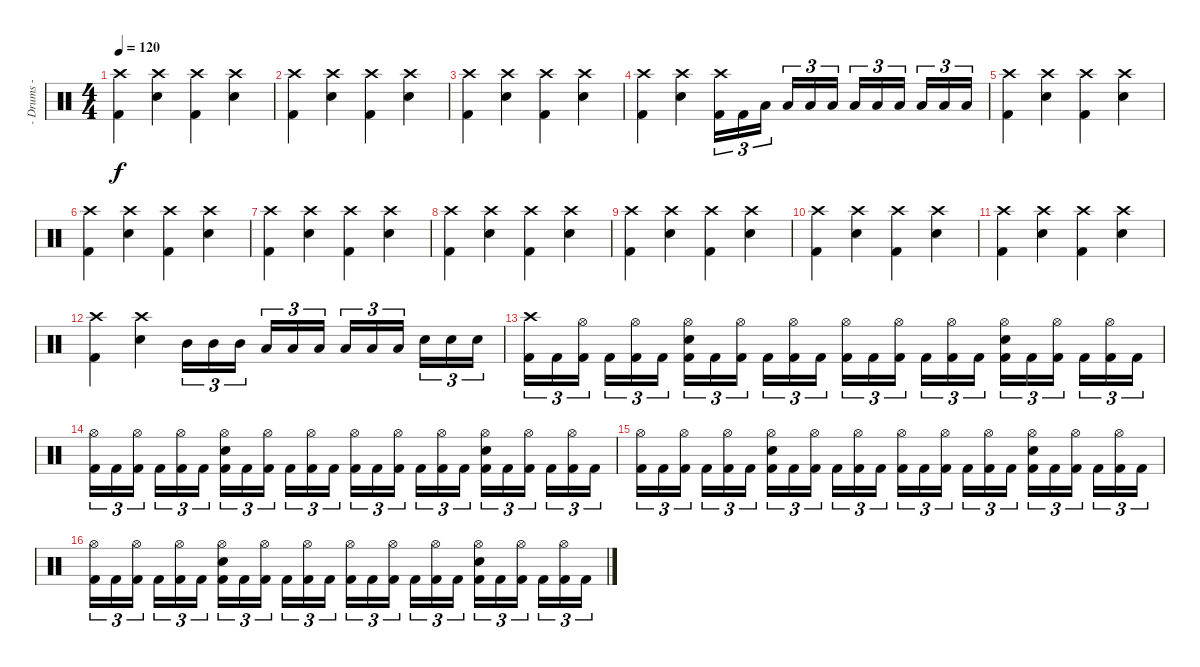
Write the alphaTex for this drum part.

\track ("- Drums -" "- Drums -") {instrument percussion}
\staff {score}
\articulation defaults
\ts (4 4)
\tempo 120
\clef neutral
\ks c
("Crash high (hit)" "Kick (hit) 2").4{dy f} ("Crash high (hit)" "Electric Snare (hit)").4 ("Crash high (hit)" "Kick (hit) 2").4 ("Crash high (hit)" "Electric Snare (hit)").4 |
("Crash high (hit)" "Kick (hit) 2").4 ("Crash high (hit)" "Electric Snare (hit)").4 ("Crash high (hit)" "Kick (hit) 2").4 ("Crash high (hit)" "Electric Snare (hit)").4 |
("Crash high (hit)" "Kick (hit) 2").4 ("Crash high (hit)" "Electric Snare (hit)").4 ("Crash high (hit)" "Kick (hit) 2").4 ("Crash high (hit)" "Electric Snare (hit)").4 |
("Crash high (hit)" "Kick (hit) 2").4 ("Crash high (hit)" "Electric Snare (hit)").4 ("Crash high (hit)" "Kick (hit) 2").16{tu (3 2)} "Kick (hit) 2".16{tu (3 2)} "Low Tom (hit)".16{tu (3 2)} "Low Tom (hit)".16{tu (3 2)} "Low Tom (hit)".16{tu (3 2)} "Low Tom (hit)".16{tu (3 2)} "Low Floor Tom (hit)".16{tu (3 2)} "Low Floor Tom (hit)".16{tu (3 2)} "Low Floor Tom (hit)".16{tu (3 2)} "Low Floor Tom (hit)".16{tu (3 2)} "Low Floor Tom (hit)".16{tu (3 2)} "Low Floor Tom (hit)".16{tu (3 2)} |
("Crash high (hit)" "Kick (hit) 2").4 ("Crash high (hit)" "Electric Snare (hit)").4 ("Crash high (hit)" "Kick (hit) 2").4 ("Crash high (hit)" "Electric Snare (hit)").4 |
("Crash high (hit)" "Kick (hit) 2").4 ("Crash high (hit)" "Electric Snare (hit)").4 ("Crash high (hit)" "Kick (hit) 2").4 ("Crash high (hit)" "Electric Snare (hit)").4 |
("Crash high (hit)" "Kick (hit) 2").4 ("Crash high (hit)" "Electric Snare (hit)").4 ("Crash high (hit)" "Kick (hit) 2").4 ("Crash high (hit)" "Electric Snare (hit)").4 |
("Crash high (hit)" "Kick (hit) 2").4 ("Crash high (hit)" "Electric Snare (hit)").4 ("Crash high (hit)" "Kick (hit) 2").4 ("Crash high (hit)" "Electric Snare (hit)").4 |
("Crash high (hit)" "Kick (hit) 2").4 ("Crash high (hit)" "Electric Snare (hit)").4 ("Crash high (hit)" "Kick (hit) 2").4 ("Crash high (hit)" "Electric Snare (hit)").4 |
("Crash high (hit)" "Kick (hit) 2").4 ("Crash high (hit)" "Electric Snare (hit)").4 ("Crash high (hit)" "Kick (hit) 2").4 ("Crash high (hit)" "Electric Snare (hit)").4 |
("Crash high (hit)" "Kick (hit) 2").4 ("Crash high (hit)" "Electric Snare (hit)").4 ("Crash high (hit)" "Kick (hit) 2").4 ("Crash high (hit)" "Electric Snare (hit)").4 |
("Crash high (hit)" "Kick (hit) 2").4 ("Crash high (hit)" "Electric Snare (hit)").4 "Mid Tom (hit)".16{tu (3 2)} "Mid Tom (hit)".16{tu (3 2)} "Mid Tom (hit)".16{tu (3 2)} "Low Tom (hit)".16{tu (3 2)} "Low Tom (hit)".16{tu (3 2)} "Low Tom (hit)".16{tu (3 2)} "Low Floor Tom (hit)".16{tu (3 2)} "Low Floor Tom (hit)".16{tu (3 2)} "Low Floor Tom (hit)".16{tu (3 2)} "Electric Snare (hit)".16{tu (3 2)} "Electric Snare (hit)".16{tu (3 2)} "Electric Snare (hit)".16{tu (3 2)} |
("Crash high (hit)" "Kick (hit) 2").16{tu (3 2)} "Kick (hit) 2".16{tu (3 2)} ("Hi-Hat (open)" "Kick (hit) 2").16{tu (3 2)} "Kick (hit) 2".16{tu (3 2)} ("Hi-Hat (open)" "Kick (hit) 2").16{tu (3 2)} "Kick (hit) 2".16{tu (3 2)} ("Hi-Hat (open)" "Electric Snare (hit)" "Kick (hit) 2").16{tu (3 2)} "Kick (hit) 2".16{tu (3 2)} ("Hi-Hat (open)" "Kick (hit) 2").16{tu (3 2)} "Kick (hit) 2".16{tu (3 2)} ("Hi-Hat (open)" "Kick (hit) 2").16{tu (3 2)} "Kick (hit) 2".16{tu (3 2)} ("Hi-Hat (open)" "Kick (hit) 2").16{tu (3 2)} "Kick (hit) 2".16{tu (3 2)} ("Hi-Hat (open)" "Kick (hit) 2").16{tu (3 2)} "Kick (hit) 2".16{tu (3 2)} ("Hi-Hat (open)" "Kick (hit) 2").16{tu (3 2)} "Kick (hit) 2".16{tu (3 2)} ("Hi-Hat (open)" "Electric Snare (hit)" "Kick (hit) 2").16{tu (3 2)} "Kick (hit) 2".16{tu (3 2)} ("Hi-Hat (open)" "Kick (hit) 2").16{tu (3 2)} "Kick (hit) 2".16{tu (3 2)} ("Hi-Hat (open)" "Kick (hit) 2").16{tu (3 2)} "Kick (hit) 2".16{tu (3 2)} |
("Hi-Hat (open)" "Kick (hit) 2").16{tu (3 2)} "Kick (hit) 2".16{tu (3 2)} ("Hi-Hat (open)" "Kick (hit) 2").16{tu (3 2)} "Kick (hit) 2".16{tu (3 2)} ("Hi-Hat (open)" "Kick (hit) 2").16{tu (3 2)} "Kick (hit) 2".16{tu (3 2)} ("Hi-Hat (open)" "Electric Snare (hit)" "Kick (hit) 2").16{tu (3 2)} "Kick (hit) 2".16{tu (3 2)} ("Hi-Hat (open)" "Kick (hit) 2").16{tu (3 2)} "Kick (hit) 2".16{tu (3 2)} ("Hi-Hat (open)" "Kick (hit) 2").16{tu (3 2)} "Kick (hit) 2".16{tu (3 2)} ("Hi-Hat (open)" "Kick (hit) 2").16{tu (3 2)} "Kick (hit) 2".16{tu (3 2)} ("Hi-Hat (open)" "Kick (hit) 2").16{tu (3 2)} "Kick (hit) 2".16{tu (3 2)} ("Hi-Hat (open)" "Kick (hit) 2").16{tu (3 2)} "Kick (hit) 2".16{tu (3 2)} ("Hi-Hat (open)" "Electric Snare (hit)" "Kick (hit) 2").16{tu (3 2)} "Kick (hit) 2".16{tu (3 2)} ("Hi-Hat (open)" "Kick (hit) 2").16{tu (3 2)} "Kick (hit) 2".16{tu (3 2)} ("Hi-Hat (open)" "Kick (hit) 2").16{tu (3 2)} "Kick (hit) 2".16{tu (3 2)} |
("Hi-Hat (open)" "Kick (hit) 2").16{tu (3 2)} "Kick (hit) 2".16{tu (3 2)} ("Hi-Hat (open)" "Kick (hit) 2").16{tu (3 2)} "Kick (hit) 2".16{tu (3 2)} ("Hi-Hat (open)" "Kick (hit) 2").16{tu (3 2)} "Kick (hit) 2".16{tu (3 2)} ("Hi-Hat (open)" "Electric Snare (hit)" "Kick (hit) 2").16{tu (3 2)} "Kick (hit) 2".16{tu (3 2)} ("Hi-Hat (open)" "Kick (hit) 2").16{tu (3 2)} "Kick (hit) 2".16{tu (3 2)} ("Hi-Hat (open)" "Kick (hit) 2").16{tu (3 2)} "Kick (hit) 2".16{tu (3 2)} ("Hi-Hat (open)" "Kick (hit) 2").16{tu (3 2)} "Kick (hit) 2".16{tu (3 2)} ("Hi-Hat (open)" "Kick (hit) 2").16{tu (3 2)} "Kick (hit) 2".16{tu (3 2)} ("Hi-Hat (open)" "Kick (hit) 2").16{tu (3 2)} "Kick (hit) 2".16{tu (3 2)} ("Hi-Hat (open)" "Electric Snare (hit)" "Kick (hit) 2").16{tu (3 2)} "Kick (hit) 2".16{tu (3 2)} ("Hi-Hat (open)" "Kick (hit) 2").16{tu (3 2)} "Kick (hit) 2".16{tu (3 2)} ("Hi-Hat (open)" "Kick (hit) 2").16{tu (3 2)} "Kick (hit) 2".16{tu (3 2)} |
("Hi-Hat (open)" "Kick (hit) 2").16{tu (3 2)} "Kick (hit) 2".16{tu (3 2)} ("Hi-Hat (open)" "Kick (hit) 2").16{tu (3 2)} "Kick (hit) 2".16{tu (3 2)} ("Hi-Hat (open)" "Kick (hit) 2").16{tu (3 2)} "Kick (hit) 2".16{tu (3 2)} ("Hi-Hat (open)" "Electric Snare (hit)" "Kick (hit) 2").16{tu (3 2)} "Kick (hit) 2".16{tu (3 2)} ("Hi-Hat (open)" "Kick (hit) 2").16{tu (3 2)} "Kick (hit) 2".16{tu (3 2)} ("Hi-Hat (open)" "Kick (hit) 2").16{tu (3 2)} "Kick (hit) 2".16{tu (3 2)} ("Hi-Hat (open)" "Kick (hit) 2").16{tu (3 2)} "Kick (hit) 2".16{tu (3 2)} ("Hi-Hat (open)" "Kick (hit) 2").16{tu (3 2)} "Kick (hit) 2".16{tu (3 2)} ("Hi-Hat (open)" "Kick (hit) 2").16{tu (3 2)} "Kick (hit) 2".16{tu (3 2)} ("Hi-Hat (open)" "Electric Snare (hit)" "Kick (hit) 2").16{tu (3 2)} "Kick (hit) 2".16{tu (3 2)} ("Hi-Hat (open)" "Kick (hit) 2").16{tu (3 2)} "Kick (hit) 2".16{tu (3 2)} ("Hi-Hat (open)" "Kick (hit) 2").16{tu (3 2)} "Kick (hit) 2".16{tu (3 2)}
